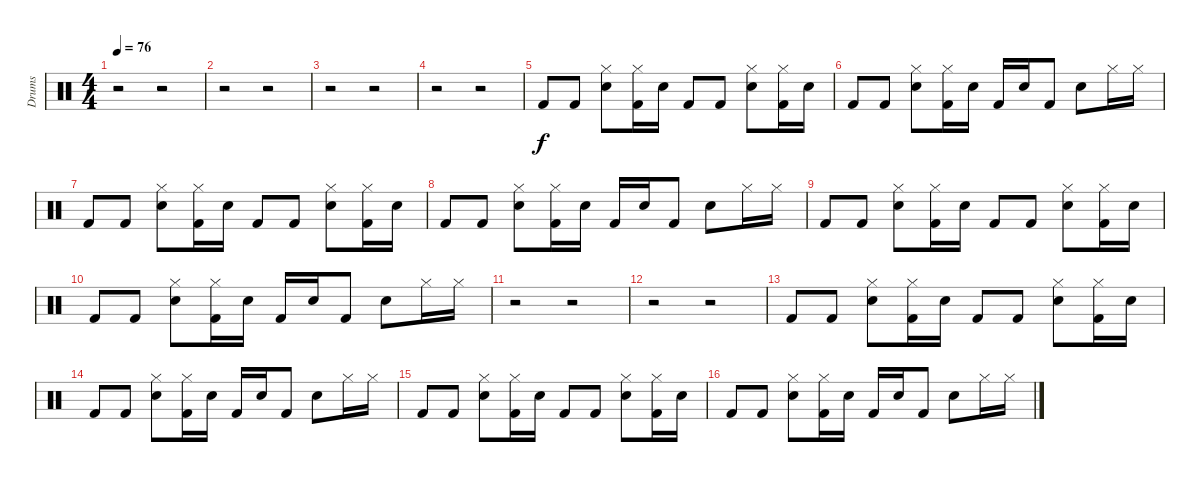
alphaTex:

\track ("Drums" "Drums") {instrument percussion}
\staff {score}
\articulation defaults
\ts (4 4)
\tempo 76
\clef neutral
\ks c
r.2{dy f} r.2 |
r.2 r.2 |
r.2 r.2 |
r.2 r.2 |
"Kick (hit) 2".8 "Kick (hit) 2".8 ("Electric Snare (hit)" "Hi-Hat (closed)").8 ("Kick (hit) 2" "Hi-Hat (closed)").16 "Electric Snare (hit)".16 "Kick (hit) 2".8 "Kick (hit) 2".8 ("Electric Snare (hit)" "Hi-Hat (closed)").8 ("Kick (hit) 2" "Hi-Hat (closed)").16 "Electric Snare (hit)".16 |
"Kick (hit) 2".8 "Kick (hit) 2".8 ("Electric Snare (hit)" "Hi-Hat (closed)").8 ("Kick (hit) 2" "Hi-Hat (closed)").16 "Electric Snare (hit)".16 "Kick (hit) 2".16 "Electric Snare (hit)".16 "Kick (hit) 2".8 "Electric Snare (hit)".8 "Hi-Hat (closed)".16 "Hi-Hat (closed)".16 |
"Kick (hit) 2".8 "Kick (hit) 2".8 ("Electric Snare (hit)" "Hi-Hat (closed)").8 ("Kick (hit) 2" "Hi-Hat (closed)").16 "Electric Snare (hit)".16 "Kick (hit) 2".8 "Kick (hit) 2".8 ("Electric Snare (hit)" "Hi-Hat (closed)").8 ("Kick (hit) 2" "Hi-Hat (closed)").16 "Electric Snare (hit)".16 |
"Kick (hit) 2".8 "Kick (hit) 2".8 ("Electric Snare (hit)" "Hi-Hat (closed)").8 ("Kick (hit) 2" "Hi-Hat (closed)").16 "Electric Snare (hit)".16 "Kick (hit) 2".16 "Electric Snare (hit)".16 "Kick (hit) 2".8 "Electric Snare (hit)".8 "Hi-Hat (closed)".16 "Hi-Hat (closed)".16 |
"Kick (hit) 2".8 "Kick (hit) 2".8 ("Electric Snare (hit)" "Hi-Hat (closed)").8 ("Kick (hit) 2" "Hi-Hat (closed)").16 "Electric Snare (hit)".16 "Kick (hit) 2".8 "Kick (hit) 2".8 ("Electric Snare (hit)" "Hi-Hat (closed)").8 ("Kick (hit) 2" "Hi-Hat (closed)").16 "Electric Snare (hit)".16 |
"Kick (hit) 2".8 "Kick (hit) 2".8 ("Electric Snare (hit)" "Hi-Hat (closed)").8 ("Kick (hit) 2" "Hi-Hat (closed)").16 "Electric Snare (hit)".16 "Kick (hit) 2".16 "Electric Snare (hit)".16 "Kick (hit) 2".8 "Electric Snare (hit)".8 "Hi-Hat (closed)".16 "Hi-Hat (closed)".16 |
r.2 r.2 |
r.2 r.2 |
"Kick (hit) 2".8 "Kick (hit) 2".8 ("Electric Snare (hit)" "Hi-Hat (closed)").8 ("Kick (hit) 2" "Hi-Hat (closed)").16 "Electric Snare (hit)".16 "Kick (hit) 2".8 "Kick (hit) 2".8 ("Electric Snare (hit)" "Hi-Hat (closed)").8 ("Kick (hit) 2" "Hi-Hat (closed)").16 "Electric Snare (hit)".16 |
"Kick (hit) 2".8 "Kick (hit) 2".8 ("Electric Snare (hit)" "Hi-Hat (closed)").8 ("Kick (hit) 2" "Hi-Hat (closed)").16 "Electric Snare (hit)".16 "Kick (hit) 2".16 "Electric Snare (hit)".16 "Kick (hit) 2".8 "Electric Snare (hit)".8 "Hi-Hat (closed)".16 "Hi-Hat (closed)".16 |
"Kick (hit) 2".8 "Kick (hit) 2".8 ("Electric Snare (hit)" "Hi-Hat (closed)").8 ("Kick (hit) 2" "Hi-Hat (closed)").16 "Electric Snare (hit)".16 "Kick (hit) 2".8 "Kick (hit) 2".8 ("Electric Snare (hit)" "Hi-Hat (closed)").8 ("Kick (hit) 2" "Hi-Hat (closed)").16 "Electric Snare (hit)".16 |
"Kick (hit) 2".8 "Kick (hit) 2".8 ("Electric Snare (hit)" "Hi-Hat (closed)").8 ("Kick (hit) 2" "Hi-Hat (closed)").16 "Electric Snare (hit)".16 "Kick (hit) 2".16 "Electric Snare (hit)".16 "Kick (hit) 2".8 "Electric Snare (hit)".8 "Hi-Hat (closed)".16 "Hi-Hat (closed)".16
